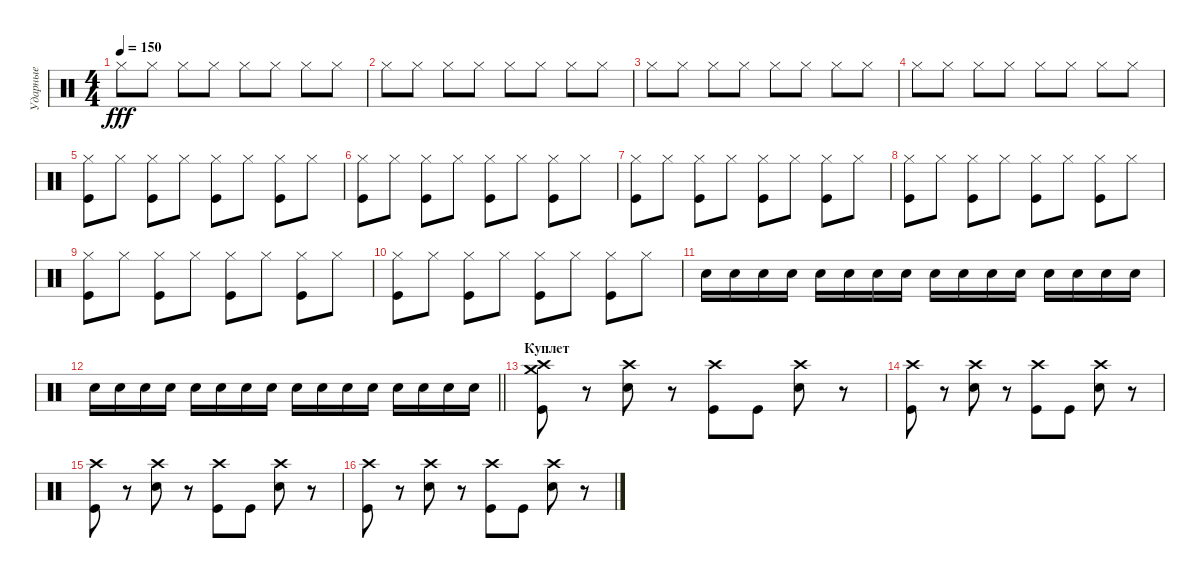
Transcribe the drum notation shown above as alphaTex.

\track ("Ударные" "Ударные") {instrument percussion}
\staff {score}
\articulation defaults
\ts (4 4)
\tempo 150
\clef neutral
\ks c "Hi-Hat (closed)".8{dy fff} "Hi-Hat (closed)".8 "Hi-Hat (closed)".8 "Hi-Hat (closed)".8 "Hi-Hat (closed)".8 "Hi-Hat (closed)".8 "Hi-Hat (closed)".8 "Hi-Hat (closed)".8
|
"Hi-Hat (closed)".8 "Hi-Hat (closed)".8 "Hi-Hat (closed)".8 "Hi-Hat (closed)".8 "Hi-Hat (closed)".8 "Hi-Hat (closed)".8 "Hi-Hat (closed)".8 "Hi-Hat (closed)".8 |
"Hi-Hat (closed)".8 "Hi-Hat (closed)".8 "Hi-Hat (closed)".8 "Hi-Hat (closed)".8 "Hi-Hat (closed)".8 "Hi-Hat (closed)".8 "Hi-Hat (closed)".8 "Hi-Hat (closed)".8 |
"Hi-Hat (closed)".8 "Hi-Hat (closed)".8 "Hi-Hat (closed)".8 "Hi-Hat (closed)".8 "Hi-Hat (closed)".8 "Hi-Hat (closed)".8 "Hi-Hat (closed)".8 "Hi-Hat (closed)".8 |
("Hi-Hat (closed)" "Kick (hit)").8 "Hi-Hat (closed)".8 ("Hi-Hat (closed)" "Kick (hit)").8 "Hi-Hat (closed)".8 ("Hi-Hat (closed)" "Kick (hit)").8 "Hi-Hat (closed)".8 ("Hi-Hat (closed)" "Kick (hit)").8 "Hi-Hat (closed)".8 |
("Hi-Hat (closed)" "Kick (hit)").8 "Hi-Hat (closed)".8 ("Hi-Hat (closed)" "Kick (hit)").8 "Hi-Hat (closed)".8 ("Hi-Hat (closed)" "Kick (hit)").8 "Hi-Hat (closed)".8 ("Hi-Hat (closed)" "Kick (hit)").8 "Hi-Hat (closed)".8 |
("Hi-Hat (closed)" "Kick (hit)").8 "Hi-Hat (closed)".8 ("Hi-Hat (closed)" "Kick (hit)").8 "Hi-Hat (closed)".8 ("Hi-Hat (closed)" "Kick (hit)").8 "Hi-Hat (closed)".8 ("Hi-Hat (closed)" "Kick (hit)").8 "Hi-Hat (closed)".8 |
("Hi-Hat (closed)" "Kick (hit)").8 "Hi-Hat (closed)".8 ("Hi-Hat (closed)" "Kick (hit)").8 "Hi-Hat (closed)".8 ("Hi-Hat (closed)" "Kick (hit)").8 "Hi-Hat (closed)".8 ("Hi-Hat (closed)" "Kick (hit)").8 "Hi-Hat (closed)".8 |
("Hi-Hat (closed)" "Kick (hit)").8 "Hi-Hat (closed)".8 ("Hi-Hat (closed)" "Kick (hit)").8 "Hi-Hat (closed)".8 ("Hi-Hat (closed)" "Kick (hit)").8 "Hi-Hat (closed)".8 ("Hi-Hat (closed)" "Kick (hit)").8 "Hi-Hat (closed)".8 |
("Hi-Hat (closed)" "Kick (hit)").8 "Hi-Hat (closed)".8 ("Hi-Hat (closed)" "Kick (hit)").8 "Hi-Hat (closed)".8 ("Hi-Hat (closed)" "Kick (hit)").8 "Hi-Hat (closed)".8 ("Hi-Hat (closed)" "Kick (hit)").8 "Hi-Hat (closed)".8 |
"Electric Snare (hit)".16 "Electric Snare (hit)".16 "Electric Snare (hit)".16 "Electric Snare (hit)".16 "Electric Snare (hit)".16 "Electric Snare (hit)".16 "Electric Snare (hit)".16 "Electric Snare (hit)".16 "Electric Snare (hit)".16 "Electric Snare (hit)".16 "Electric Snare (hit)".16 "Electric Snare (hit)".16 "Electric Snare (hit)".16 "Electric Snare (hit)".16 "Electric Snare (hit)".16 "Electric Snare (hit)".16 |
\barLineRight lightlight "Electric Snare (hit)".16 "Electric Snare (hit)".16 "Electric Snare (hit)".16 "Electric Snare (hit)".16 "Electric Snare (hit)".16 "Electric Snare (hit)".16 "Electric Snare (hit)".16 "Electric Snare (hit)".16 "Electric Snare (hit)".16 "Electric Snare (hit)".16 "Electric Snare (hit)".16 "Electric Snare (hit)".16 "Electric Snare (hit)".16 "Electric Snare (hit)".16 "Electric Snare (hit)".16 "Electric Snare (hit)".16
|
\section ("" "Куплет")
("Crash medium (hit)" "Crash high (hit)" "Kick (hit)").8 r.8 ("Crash high (hit)" "Electric Snare (hit)").8 r.8 ("Crash high (hit)" "Kick (hit)").8 "Kick (hit)".8 ("Crash high (hit)" "Electric Snare (hit)").8 r.8 |
("Crash high (hit)" "Kick (hit)").8 r.8 ("Crash high (hit)" "Electric Snare (hit)").8 r.8 ("Crash high (hit)" "Kick (hit)").8 "Kick (hit)".8 ("Crash high (hit)" "Electric Snare (hit)").8 r.8 |
("Crash high (hit)" "Kick (hit)").8 r.8 ("Crash high (hit)" "Electric Snare (hit)").8 r.8 ("Crash high (hit)" "Kick (hit)").8 "Kick (hit)".8 ("Crash high (hit)" "Electric Snare (hit)").8 r.8 |
("Crash high (hit)" "Kick (hit)").8 r.8 ("Crash high (hit)" "Electric Snare (hit)").8 r.8 ("Crash high (hit)" "Kick (hit)").8 "Kick (hit)".8 ("Crash high (hit)" "Electric Snare (hit)").8 r.8
